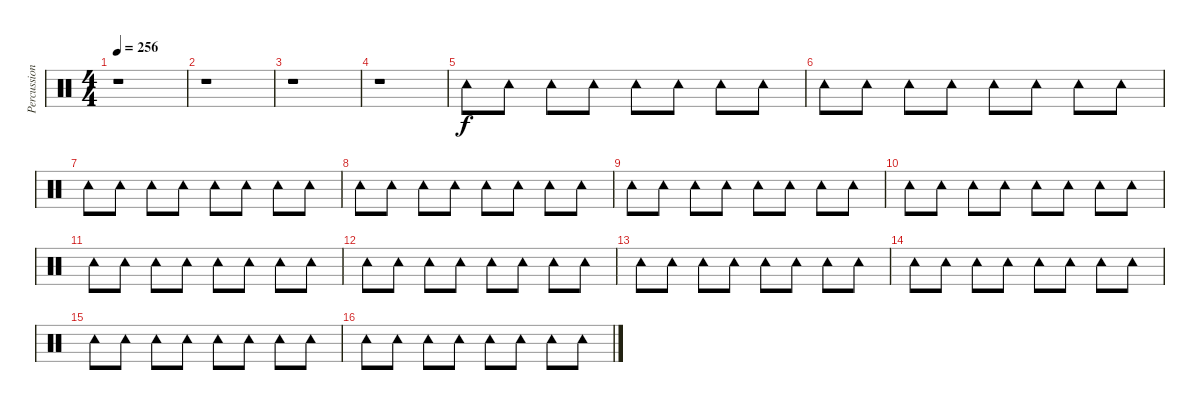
\track ("Percussions" "Percussion") {instrument percussion}
\staff {score}
\articulation defaults
\ts (4 4)
\tempo 256
\clef neutral
\ks c
r.1{dy f} |
r.1 |
r.1 |
r.1 |
"Tambourine (hit)".8 "Tambourine (hit)".8 "Tambourine (hit)".8 "Tambourine (hit)".8 "Tambourine (hit)".8 "Tambourine (hit)".8 "Tambourine (hit)".8 "Tambourine (hit)".8 |
"Tambourine (hit)".8 "Tambourine (hit)".8 "Tambourine (hit)".8 "Tambourine (hit)".8 "Tambourine (hit)".8 "Tambourine (hit)".8 "Tambourine (hit)".8 "Tambourine (hit)".8 |
"Tambourine (hit)".8 "Tambourine (hit)".8 "Tambourine (hit)".8 "Tambourine (hit)".8 "Tambourine (hit)".8 "Tambourine (hit)".8 "Tambourine (hit)".8 "Tambourine (hit)".8 |
"Tambourine (hit)".8 "Tambourine (hit)".8 "Tambourine (hit)".8 "Tambourine (hit)".8 "Tambourine (hit)".8 "Tambourine (hit)".8 "Tambourine (hit)".8 "Tambourine (hit)".8 |
"Tambourine (hit)".8 "Tambourine (hit)".8 "Tambourine (hit)".8 "Tambourine (hit)".8 "Tambourine (hit)".8 "Tambourine (hit)".8 "Tambourine (hit)".8 "Tambourine (hit)".8 |
"Tambourine (hit)".8 "Tambourine (hit)".8 "Tambourine (hit)".8 "Tambourine (hit)".8 "Tambourine (hit)".8 "Tambourine (hit)".8 "Tambourine (hit)".8 "Tambourine (hit)".8 |
"Tambourine (hit)".8 "Tambourine (hit)".8 "Tambourine (hit)".8 "Tambourine (hit)".8 "Tambourine (hit)".8 "Tambourine (hit)".8 "Tambourine (hit)".8 "Tambourine (hit)".8 |
"Tambourine (hit)".8 "Tambourine (hit)".8 "Tambourine (hit)".8 "Tambourine (hit)".8 "Tambourine (hit)".8 "Tambourine (hit)".8 "Tambourine (hit)".8 "Tambourine (hit)".8 |
"Tambourine (hit)".8 "Tambourine (hit)".8 "Tambourine (hit)".8 "Tambourine (hit)".8 "Tambourine (hit)".8 "Tambourine (hit)".8 "Tambourine (hit)".8 "Tambourine (hit)".8 |
"Tambourine (hit)".8 "Tambourine (hit)".8 "Tambourine (hit)".8 "Tambourine (hit)".8 "Tambourine (hit)".8 "Tambourine (hit)".8 "Tambourine (hit)".8 "Tambourine (hit)".8 |
"Tambourine (hit)".8 "Tambourine (hit)".8 "Tambourine (hit)".8 "Tambourine (hit)".8 "Tambourine (hit)".8 "Tambourine (hit)".8 "Tambourine (hit)".8 "Tambourine (hit)".8 |
"Tambourine (hit)".8 "Tambourine (hit)".8 "Tambourine (hit)".8 "Tambourine (hit)".8 "Tambourine (hit)".8 "Tambourine (hit)".8 "Tambourine (hit)".8 "Tambourine (hit)".8
